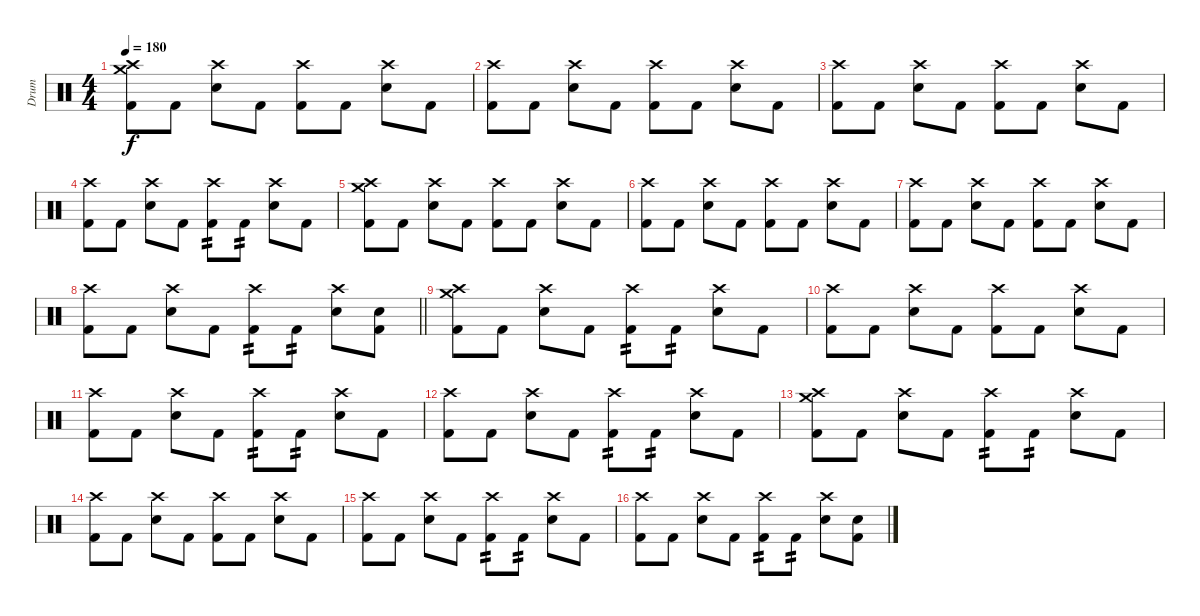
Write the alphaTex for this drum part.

\track ("Drum" "Drum") {instrument percussion}
\staff {score}
\articulation defaults
\ts (4 4)
\section ("" "")
\tempo 180
\clef neutral
\ks c
("Crash high (hit)" "Crash medium (hit)" "Kick (hit) 2").8{dy f} "Kick (hit) 2".8 ("Crash high (hit)" "Snare (hit) 2").8 "Kick (hit) 2".8 ("Crash high (hit)" "Kick (hit) 2").8 "Kick (hit) 2".8 ("Crash high (hit)" "Snare (hit) 2").8 "Kick (hit) 2".8 |
("Crash high (hit)" "Kick (hit) 2").8 "Kick (hit) 2".8 ("Crash high (hit)" "Snare (hit) 2").8 "Kick (hit) 2".8 ("Crash high (hit)" "Kick (hit) 2").8 "Kick (hit) 2".8 ("Crash high (hit)" "Snare (hit) 2").8 "Kick (hit) 2".8 |
("Crash high (hit)" "Kick (hit) 2").8 "Kick (hit) 2".8 ("Crash high (hit)" "Snare (hit) 2").8 "Kick (hit) 2".8 ("Crash high (hit)" "Kick (hit) 2").8 "Kick (hit) 2".8 ("Crash high (hit)" "Snare (hit) 2").8 "Kick (hit) 2".8 |
("Crash high (hit)" "Kick (hit) 2").8 "Kick (hit) 2".8 ("Crash high (hit)" "Snare (hit) 2").8 "Kick (hit) 2".8 ("Crash high (hit)" "Kick (hit) 2").8{tp 2} "Kick (hit) 2".8{tp 2} ("Crash high (hit)" "Snare (hit) 2").8 "Kick (hit) 2".8 |
("Crash high (hit)" "Crash medium (hit)" "Kick (hit) 2").8 "Kick (hit) 2".8 ("Crash high (hit)" "Snare (hit) 2").8 "Kick (hit) 2".8 ("Crash high (hit)" "Kick (hit) 2").8 "Kick (hit) 2".8 ("Crash high (hit)" "Snare (hit) 2").8 "Kick (hit) 2".8 |
("Crash high (hit)" "Kick (hit) 2").8 "Kick (hit) 2".8 ("Crash high (hit)" "Snare (hit) 2").8 "Kick (hit) 2".8 ("Crash high (hit)" "Kick (hit) 2").8 "Kick (hit) 2".8 ("Crash high (hit)" "Snare (hit) 2").8 "Kick (hit) 2".8 |
("Crash high (hit)" "Kick (hit) 2").8 "Kick (hit) 2".8 ("Crash high (hit)" "Snare (hit) 2").8 "Kick (hit) 2".8 ("Crash high (hit)" "Kick (hit) 2").8 "Kick (hit) 2".8 ("Crash high (hit)" "Snare (hit) 2").8 "Kick (hit) 2".8 |
\barLineRight lightlight
("Crash high (hit)" "Kick (hit) 2").8 "Kick (hit) 2".8 ("Crash high (hit)" "Snare (hit) 2").8 "Kick (hit) 2".8 ("Crash high (hit)" "Kick (hit) 2").8{tp 2} "Kick (hit) 2".8{tp 2} ("Crash high (hit)" "Snare (hit) 2").8 ("Snare (hit) 2" "Kick (hit) 2").8 |
\section ("" "")
("Crash high (hit)" "Crash medium (hit)" "Kick (hit) 2").8 "Kick (hit) 2".8 ("Crash high (hit)" "Snare (hit) 2").8 "Kick (hit) 2".8 ("Crash high (hit)" "Kick (hit) 2").8{tp 2} "Kick (hit) 2".8{tp 2} ("Crash high (hit)" "Snare (hit) 2").8 "Kick (hit) 2".8 |
("Crash high (hit)" "Kick (hit) 2").8 "Kick (hit) 2".8 ("Crash high (hit)" "Snare (hit) 2").8 "Kick (hit) 2".8 ("Crash high (hit)" "Kick (hit) 2").8 "Kick (hit) 2".8 ("Crash high (hit)" "Snare (hit) 2").8 "Kick (hit) 2".8 |
("Crash high (hit)" "Kick (hit) 2").8 "Kick (hit) 2".8 ("Crash high (hit)" "Snare (hit) 2").8 "Kick (hit) 2".8 ("Crash high (hit)" "Kick (hit) 2").8{tp 2} "Kick (hit) 2".8{tp 2} ("Crash high (hit)" "Snare (hit) 2").8 "Kick (hit) 2".8 |
("Crash high (hit)" "Kick (hit) 2").8 "Kick (hit) 2".8 ("Crash high (hit)" "Snare (hit) 2").8 "Kick (hit) 2".8 ("Crash high (hit)" "Kick (hit) 2").8{tp 2} "Kick (hit) 2".8{tp 2} ("Crash high (hit)" "Snare (hit) 2").8 "Kick (hit) 2".8 |
("Crash high (hit)" "Crash medium (hit)" "Kick (hit) 2").8 "Kick (hit) 2".8 ("Crash high (hit)" "Snare (hit) 2").8 "Kick (hit) 2".8 ("Crash high (hit)" "Kick (hit) 2").8{tp 2} "Kick (hit) 2".8{tp 2} ("Crash high (hit)" "Snare (hit) 2").8 "Kick (hit) 2".8 |
("Crash high (hit)" "Kick (hit) 2").8 "Kick (hit) 2".8 ("Crash high (hit)" "Snare (hit) 2").8 "Kick (hit) 2".8 ("Crash high (hit)" "Kick (hit) 2").8 "Kick (hit) 2".8 ("Crash high (hit)" "Snare (hit) 2").8 "Kick (hit) 2".8 |
("Crash high (hit)" "Kick (hit) 2").8 "Kick (hit) 2".8 ("Crash high (hit)" "Snare (hit) 2").8 "Kick (hit) 2".8 ("Crash high (hit)" "Kick (hit) 2").8{tp 2} "Kick (hit) 2".8{tp 2} ("Crash high (hit)" "Snare (hit) 2").8 "Kick (hit) 2".8 |
("Crash high (hit)" "Kick (hit) 2").8 "Kick (hit) 2".8 ("Crash high (hit)" "Snare (hit) 2").8 "Kick (hit) 2".8 ("Crash high (hit)" "Kick (hit) 2").8{tp 2} "Kick (hit) 2".8{tp 2} ("Crash high (hit)" "Snare (hit) 2").8 ("Snare (hit) 2" "Kick (hit) 2").8
